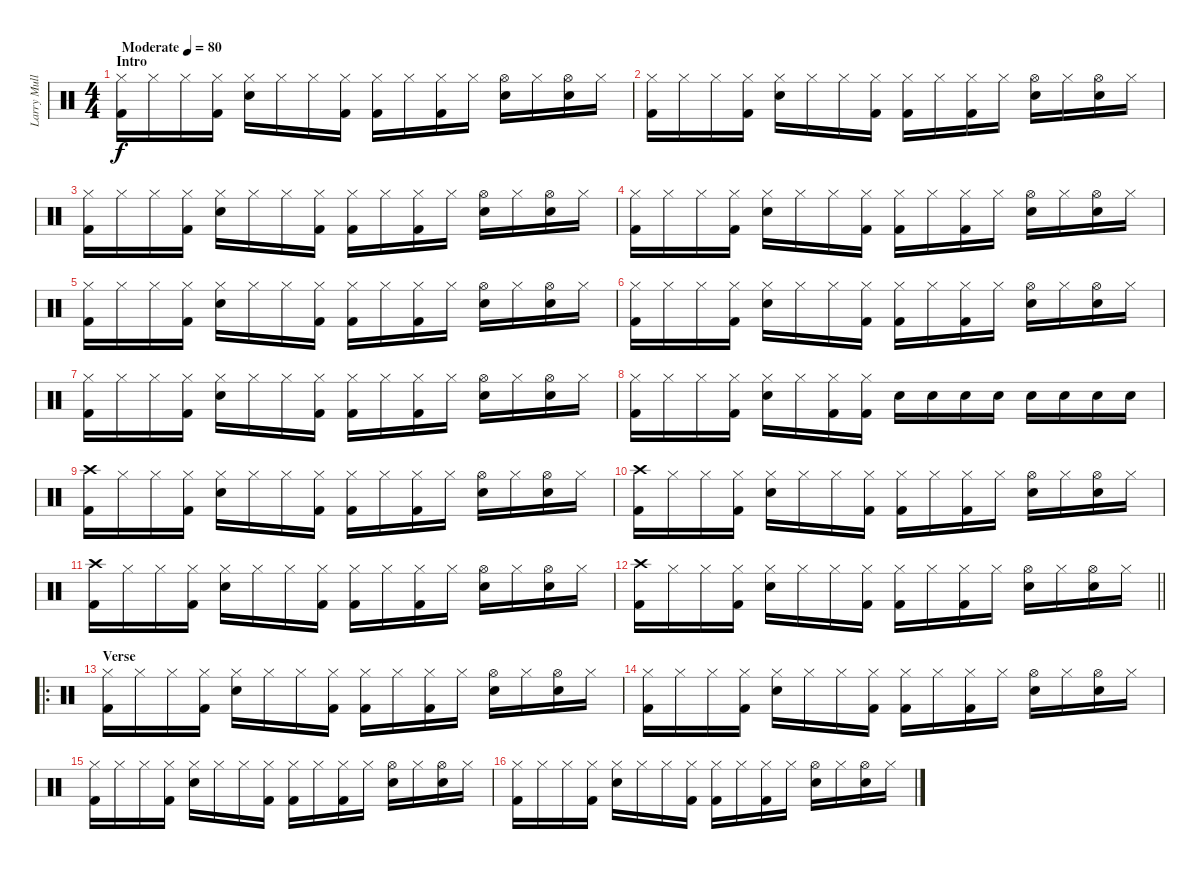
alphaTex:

\track ("Larry Mullen Jr" "Larry Mull") {instrument percussion}
\staff {score}
\articulation defaults
\ts (4 4)
\section ("" "Intro")
\tempo (80 "Moderate")
\clef neutral
\ks c
("Hi-Hat (closed)" "Kick (hit) 2").16{dy f} "Hi-Hat (closed)".16 "Hi-Hat (closed)".16 ("Hi-Hat (closed)" "Kick (hit) 2").16 ("Hi-Hat (closed)" "Snare (hit) 2").16 "Hi-Hat (closed)".16 "Hi-Hat (closed)".16 ("Hi-Hat (closed)" "Kick (hit) 2").16 ("Hi-Hat (closed)" "Kick (hit) 2").16 "Hi-Hat (closed)".16 ("Hi-Hat (closed)" "Kick (hit) 2").16 "Hi-Hat (closed)".16 ("Hi-Hat (open)" "Snare (hit) 2").16 "Hi-Hat (closed)".16 ("Hi-Hat (open)" "Snare (hit) 2").16 "Hi-Hat (closed)".16 |
("Hi-Hat (closed)" "Kick (hit) 2").16 "Hi-Hat (closed)".16 "Hi-Hat (closed)".16 ("Hi-Hat (closed)" "Kick (hit) 2").16 ("Hi-Hat (closed)" "Snare (hit) 2").16 "Hi-Hat (closed)".16 "Hi-Hat (closed)".16 ("Hi-Hat (closed)" "Kick (hit) 2").16 ("Hi-Hat (closed)" "Kick (hit) 2").16 "Hi-Hat (closed)".16 ("Hi-Hat (closed)" "Kick (hit) 2").16 "Hi-Hat (closed)".16 ("Hi-Hat (open)" "Snare (hit) 2").16 "Hi-Hat (closed)".16 ("Hi-Hat (open)" "Snare (hit) 2").16 "Hi-Hat (closed)".16 |
("Hi-Hat (closed)" "Kick (hit) 2").16 "Hi-Hat (closed)".16 "Hi-Hat (closed)".16 ("Hi-Hat (closed)" "Kick (hit) 2").16 ("Hi-Hat (closed)" "Snare (hit) 2").16 "Hi-Hat (closed)".16 "Hi-Hat (closed)".16 ("Hi-Hat (closed)" "Kick (hit) 2").16 ("Hi-Hat (closed)" "Kick (hit) 2").16 "Hi-Hat (closed)".16 ("Hi-Hat (closed)" "Kick (hit) 2").16 "Hi-Hat (closed)".16 ("Hi-Hat (open)" "Snare (hit) 2").16 "Hi-Hat (closed)".16 ("Hi-Hat (open)" "Snare (hit) 2").16 "Hi-Hat (closed)".16 |
("Hi-Hat (closed)" "Kick (hit) 2").16 "Hi-Hat (closed)".16 "Hi-Hat (closed)".16 ("Hi-Hat (closed)" "Kick (hit) 2").16 ("Hi-Hat (closed)" "Snare (hit) 2").16 "Hi-Hat (closed)".16 "Hi-Hat (closed)".16 ("Hi-Hat (closed)" "Kick (hit) 2").16 ("Hi-Hat (closed)" "Kick (hit) 2").16 "Hi-Hat (closed)".16 ("Hi-Hat (closed)" "Kick (hit) 2").16 "Hi-Hat (closed)".16 ("Hi-Hat (open)" "Snare (hit) 2").16 "Hi-Hat (closed)".16 ("Hi-Hat (open)" "Snare (hit) 2").16 "Hi-Hat (closed)".16 |
("Hi-Hat (closed)" "Kick (hit) 2").16 "Hi-Hat (closed)".16 "Hi-Hat (closed)".16 ("Hi-Hat (closed)" "Kick (hit) 2").16 ("Hi-Hat (closed)" "Snare (hit) 2").16 "Hi-Hat (closed)".16 "Hi-Hat (closed)".16 ("Hi-Hat (closed)" "Kick (hit) 2").16 ("Hi-Hat (closed)" "Kick (hit) 2").16 "Hi-Hat (closed)".16 ("Hi-Hat (closed)" "Kick (hit) 2").16 "Hi-Hat (closed)".16 ("Hi-Hat (open)" "Snare (hit) 2").16 "Hi-Hat (closed)".16 ("Hi-Hat (open)" "Snare (hit) 2").16 "Hi-Hat (closed)".16 |
("Hi-Hat (closed)" "Kick (hit) 2").16 "Hi-Hat (closed)".16 "Hi-Hat (closed)".16 ("Hi-Hat (closed)" "Kick (hit) 2").16 ("Hi-Hat (closed)" "Snare (hit) 2").16 "Hi-Hat (closed)".16 "Hi-Hat (closed)".16 ("Hi-Hat (closed)" "Kick (hit) 2").16 ("Hi-Hat (closed)" "Kick (hit) 2").16 "Hi-Hat (closed)".16 ("Hi-Hat (closed)" "Kick (hit) 2").16 "Hi-Hat (closed)".16 ("Hi-Hat (open)" "Snare (hit) 2").16 "Hi-Hat (closed)".16 ("Hi-Hat (open)" "Snare (hit) 2").16 "Hi-Hat (closed)".16 |
("Hi-Hat (closed)" "Kick (hit) 2").16 "Hi-Hat (closed)".16 "Hi-Hat (closed)".16 ("Hi-Hat (closed)" "Kick (hit) 2").16 ("Hi-Hat (closed)" "Snare (hit) 2").16 "Hi-Hat (closed)".16 "Hi-Hat (closed)".16 ("Hi-Hat (closed)" "Kick (hit) 2").16 ("Hi-Hat (closed)" "Kick (hit) 2").16 "Hi-Hat (closed)".16 ("Hi-Hat (closed)" "Kick (hit) 2").16 "Hi-Hat (closed)".16 ("Hi-Hat (open)" "Snare (hit) 2").16 "Hi-Hat (closed)".16 ("Hi-Hat (open)" "Snare (hit) 2").16 "Hi-Hat (closed)".16 |
("Hi-Hat (closed)" "Kick (hit) 2").16 "Hi-Hat (closed)".16 "Hi-Hat (closed)".16 ("Hi-Hat (closed)" "Kick (hit) 2").16 ("Hi-Hat (closed)" "Snare (hit) 2").16 "Hi-Hat (closed)".16 ("Hi-Hat (closed)" "Kick (hit) 2").16 ("Hi-Hat (closed)" "Kick (hit) 2").16 "Snare (hit) 2".16 "Snare (hit) 2".16 "Snare (hit) 2".16 "Snare (hit) 2".16 "Snare (hit) 2".16 "Snare (hit) 2".16 "Snare (hit) 2".16 "Snare (hit) 2".16 |
("Crash high (hit)" "Kick (hit) 2").16 "Hi-Hat (closed)".16 "Hi-Hat (closed)".16 ("Hi-Hat (closed)" "Kick (hit) 2").16 ("Hi-Hat (closed)" "Snare (hit) 2").16 "Hi-Hat (closed)".16 "Hi-Hat (closed)".16 ("Hi-Hat (closed)" "Kick (hit) 2").16 ("Hi-Hat (closed)" "Kick (hit) 2").16 "Hi-Hat (closed)".16 ("Hi-Hat (closed)" "Kick (hit) 2").16 "Hi-Hat (closed)".16 ("Hi-Hat (open)" "Snare (hit) 2").16 "Hi-Hat (closed)".16 ("Hi-Hat (open)" "Snare (hit) 2").16 "Hi-Hat (closed)".16 |
("Crash high (hit)" "Kick (hit) 2").16 "Hi-Hat (closed)".16 "Hi-Hat (closed)".16 ("Hi-Hat (closed)" "Kick (hit) 2").16 ("Hi-Hat (closed)" "Snare (hit) 2").16 "Hi-Hat (closed)".16 "Hi-Hat (closed)".16 ("Hi-Hat (closed)" "Kick (hit) 2").16 ("Hi-Hat (closed)" "Kick (hit) 2").16 "Hi-Hat (closed)".16 ("Hi-Hat (closed)" "Kick (hit) 2").16 "Hi-Hat (closed)".16 ("Hi-Hat (open)" "Snare (hit) 2").16 "Hi-Hat (closed)".16 ("Hi-Hat (open)" "Snare (hit) 2").16 "Hi-Hat (closed)".16 |
("Crash high (hit)" "Kick (hit) 2").16 "Hi-Hat (closed)".16 "Hi-Hat (closed)".16 ("Hi-Hat (closed)" "Kick (hit) 2").16 ("Hi-Hat (closed)" "Snare (hit) 2").16 "Hi-Hat (closed)".16 "Hi-Hat (closed)".16 ("Hi-Hat (closed)" "Kick (hit) 2").16 ("Hi-Hat (closed)" "Kick (hit) 2").16 "Hi-Hat (closed)".16 ("Hi-Hat (closed)" "Kick (hit) 2").16 "Hi-Hat (closed)".16 ("Hi-Hat (open)" "Snare (hit) 2").16 "Hi-Hat (closed)".16 ("Hi-Hat (open)" "Snare (hit) 2").16 "Hi-Hat (closed)".16 |
\barLineRight lightlight
("Crash high (hit)" "Kick (hit) 2").16 "Hi-Hat (closed)".16 "Hi-Hat (closed)".16 ("Hi-Hat (closed)" "Kick (hit) 2").16 ("Hi-Hat (closed)" "Snare (hit) 2").16 "Hi-Hat (closed)".16 "Hi-Hat (closed)".16 ("Hi-Hat (closed)" "Kick (hit) 2").16 ("Hi-Hat (closed)" "Kick (hit) 2").16 "Hi-Hat (closed)".16 ("Hi-Hat (closed)" "Kick (hit) 2").16 "Hi-Hat (closed)".16 ("Hi-Hat (open)" "Snare (hit) 2").16 "Hi-Hat (closed)".16 ("Hi-Hat (open)" "Snare (hit) 2").16 "Hi-Hat (closed)".16 |
\ro
\section ("" "Verse")
("Hi-Hat (closed)" "Kick (hit) 2").16 "Hi-Hat (closed)".16 "Hi-Hat (closed)".16 ("Hi-Hat (closed)" "Kick (hit) 2").16 ("Hi-Hat (closed)" "Snare (hit) 2").16 "Hi-Hat (closed)".16 "Hi-Hat (closed)".16 ("Hi-Hat (closed)" "Kick (hit) 2").16 ("Hi-Hat (closed)" "Kick (hit) 2").16 "Hi-Hat (closed)".16 ("Hi-Hat (closed)" "Kick (hit) 2").16 "Hi-Hat (closed)".16 ("Hi-Hat (open)" "Snare (hit) 2").16 "Hi-Hat (closed)".16 ("Hi-Hat (open)" "Snare (hit) 2").16 "Hi-Hat (closed)".16 |
("Hi-Hat (closed)" "Kick (hit) 2").16 "Hi-Hat (closed)".16 "Hi-Hat (closed)".16 ("Hi-Hat (closed)" "Kick (hit) 2").16 ("Hi-Hat (closed)" "Snare (hit) 2").16 "Hi-Hat (closed)".16 "Hi-Hat (closed)".16 ("Hi-Hat (closed)" "Kick (hit) 2").16 ("Hi-Hat (closed)" "Kick (hit) 2").16 "Hi-Hat (closed)".16 ("Hi-Hat (closed)" "Kick (hit) 2").16 "Hi-Hat (closed)".16 ("Hi-Hat (open)" "Snare (hit) 2").16 "Hi-Hat (closed)".16 ("Hi-Hat (open)" "Snare (hit) 2").16 "Hi-Hat (closed)".16 |
("Hi-Hat (closed)" "Kick (hit) 2").16 "Hi-Hat (closed)".16 "Hi-Hat (closed)".16 ("Hi-Hat (closed)" "Kick (hit) 2").16 ("Hi-Hat (closed)" "Snare (hit) 2").16 "Hi-Hat (closed)".16 "Hi-Hat (closed)".16 ("Hi-Hat (closed)" "Kick (hit) 2").16 ("Hi-Hat (closed)" "Kick (hit) 2").16 "Hi-Hat (closed)".16 ("Hi-Hat (closed)" "Kick (hit) 2").16 "Hi-Hat (closed)".16 ("Hi-Hat (open)" "Snare (hit) 2").16 "Hi-Hat (closed)".16 ("Hi-Hat (open)" "Snare (hit) 2").16 "Hi-Hat (closed)".16 |
("Hi-Hat (closed)" "Kick (hit) 2").16 "Hi-Hat (closed)".16 "Hi-Hat (closed)".16 ("Hi-Hat (closed)" "Kick (hit) 2").16 ("Hi-Hat (closed)" "Snare (hit) 2").16 "Hi-Hat (closed)".16 "Hi-Hat (closed)".16 ("Hi-Hat (closed)" "Kick (hit) 2").16 ("Hi-Hat (closed)" "Kick (hit) 2").16 "Hi-Hat (closed)".16 ("Hi-Hat (closed)" "Kick (hit) 2").16 "Hi-Hat (closed)".16 ("Hi-Hat (open)" "Snare (hit) 2").16 "Hi-Hat (closed)".16 ("Hi-Hat (open)" "Snare (hit) 2").16 "Hi-Hat (closed)".16
